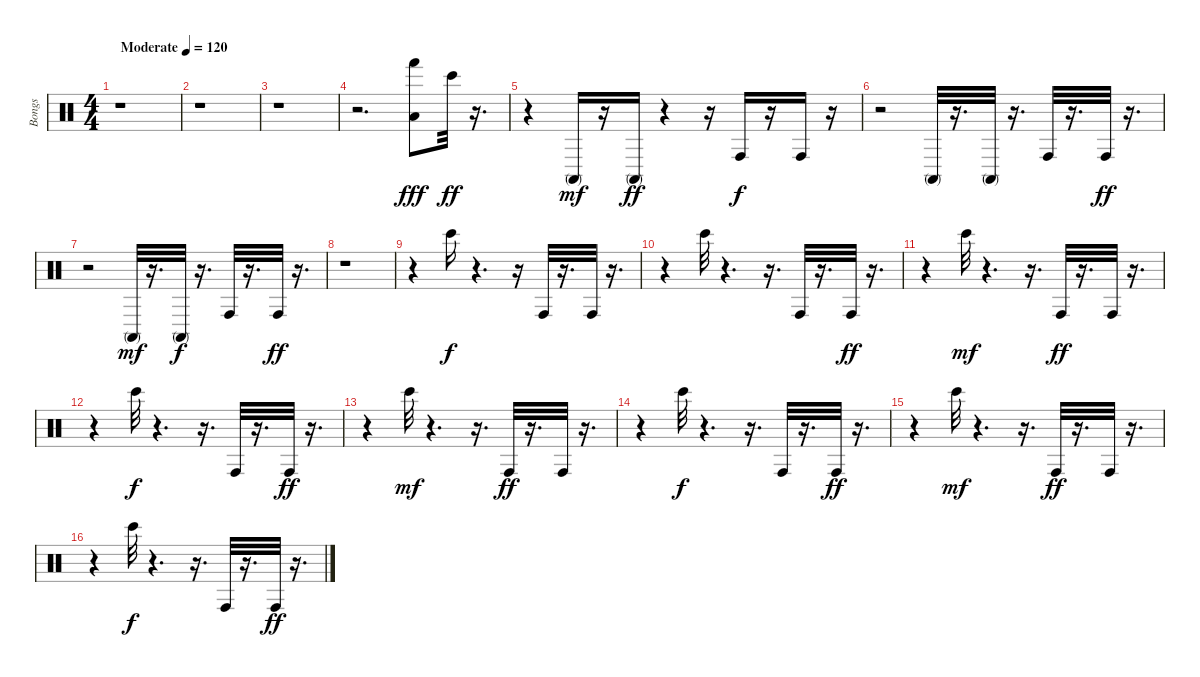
\track ("Bongs" "Bongs") {instrument percussion}
\staff {score}
\articulation defaults
\ts (4 4)
\tempo (120 "Moderate")
\clef neutral
\ks c
r.1{dy fff} |
r.1 |
r.1 |
r.2{d} ("Hand (hit)" "Low Floor Tom (hit)").8 "Bongo High (hit)".32{dy ff} r.16{d} |
r.4 "Conga high (mute)".16{dy mf} r.16 "Conga high (mute)".16{dy ff} r.4 r.16 "Conga high (hit)".16{dy f} r.16 "Conga high (hit)".16 r.16 |
r.2 "Conga high (mute)".32 r.16{d} "Conga high (mute)".32 r.16{d} "Conga high (hit)".32 r.16{d} "Conga high (hit)".32{dy ff} r.16{d} |
r.2 "Conga high (mute)".32{dy mf} r.16{d} "Conga high (mute)".32{dy f} r.16{d} "Conga high (hit)".32 r.16{d} "Conga high (hit)".32{dy ff} r.16{d} |
r.1 |
r.4 "Bongo High (hit)".16{dy f} r.4{d} r.16 "Conga high (hit)".32 r.16{d} "Conga high (hit)".32 r.16{d} |
r.4 "Bongo High (hit)".32 r.4{d} r.16{d} "Conga high (hit)".32 r.16{d} "Conga high (hit)".32{dy ff} r.16{d} |
r.4 "Bongo High (hit)".32{dy mf} r.4{d} r.16{d} "Conga high (hit)".32{dy ff} r.16{d} "Conga high (hit)".32 r.16{d} |
r.4 "Bongo High (hit)".32{dy f} r.4{d} r.16{d} "Conga high (hit)".32 r.16{d} "Conga high (hit)".32{dy ff} r.16{d} |
r.4 "Bongo High (hit)".32{dy mf} r.4{d} r.16{d} "Conga high (hit)".32{dy ff} r.16{d} "Conga high (hit)".32 r.16{d} |
r.4 "Bongo High (hit)".32{dy f} r.4{d} r.16{d} "Conga high (hit)".32 r.16{d} "Conga high (hit)".32{dy ff} r.16{d} |
r.4 "Bongo High (hit)".32{dy mf} r.4{d} r.16{d} "Conga high (hit)".32{dy ff} r.16{d} "Conga high (hit)".32 r.16{d} |
r.4 "Bongo High (hit)".32{dy f} r.4{d} r.16{d} "Conga high (hit)".32 r.16{d} "Conga high (hit)".32{dy ff} r.16{d}
